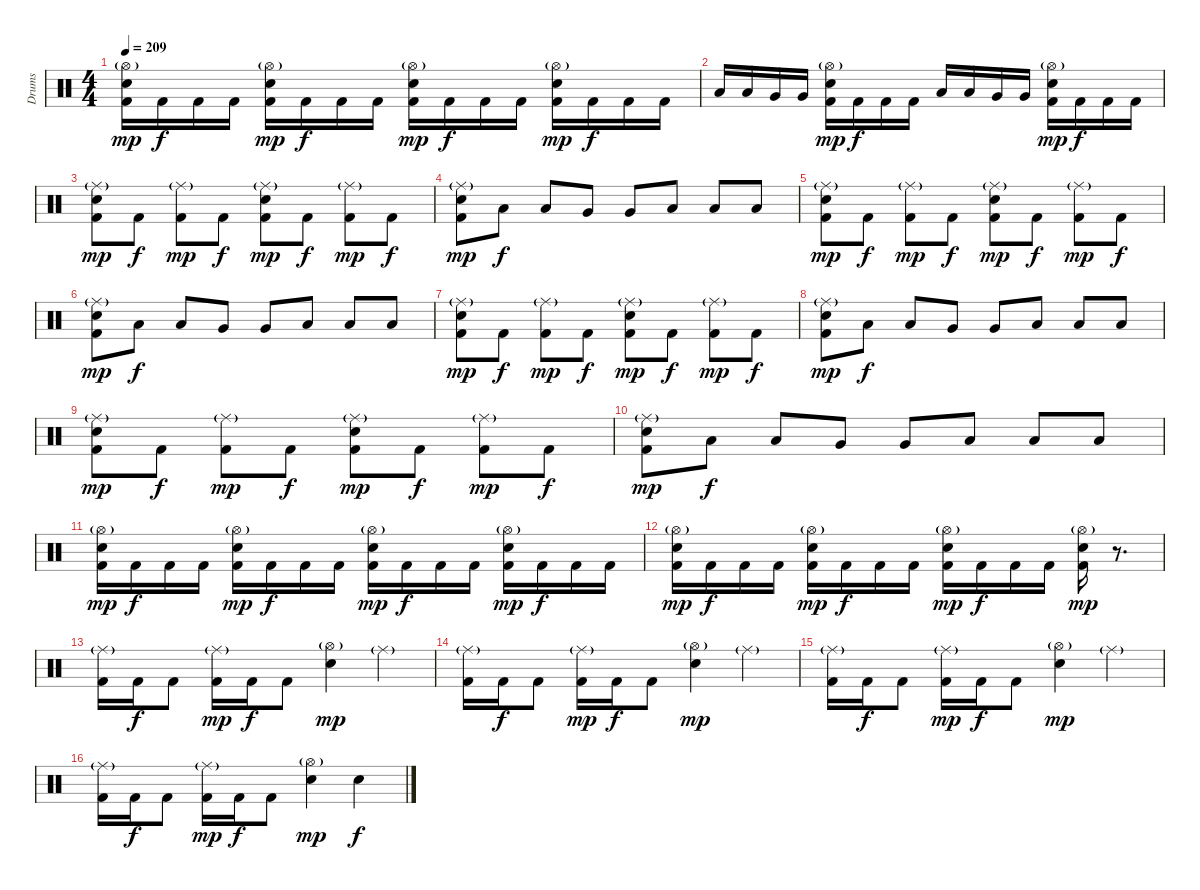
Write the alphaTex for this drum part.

\track ("Drums" "Drums") {instrument percussion}
\staff {score}
\articulation defaults
\ts (4 4)
\tempo 209
\clef neutral
\ks c
("Hi-Hat (open)"{g} "Snare (hit) 2" "Kick (hit) 2").16{dy mp} "Kick (hit) 2".16{dy f} "Kick (hit) 2".16 "Kick (hit) 2".16 ("Hi-Hat (open)"{g} "Snare (hit) 2" "Kick (hit) 2").16{dy mp} "Kick (hit) 2".16{dy f} "Kick (hit) 2".16 "Kick (hit) 2".16 ("Hi-Hat (open)"{g} "Snare (hit) 2" "Kick (hit) 2").16{dy mp} "Kick (hit) 2".16{dy f} "Kick (hit) 2".16 "Kick (hit) 2".16 ("Hi-Hat (open)"{g} "Snare (hit) 2" "Kick (hit) 2").16{dy mp} "Kick (hit) 2".16{dy f} "Kick (hit) 2".16 "Kick (hit) 2".16 |
"Low Tom (hit)".16 "Low Tom (hit)".16 "Very Low Tom (hit)".16 "Very Low Tom (hit)".16 ("Hi-Hat (open)"{g} "Snare (hit) 2" "Kick (hit) 2").16{dy mp} "Kick (hit) 2".16{dy f} "Kick (hit) 2".16 "Kick (hit) 2".16 "Low Tom (hit)".16 "Low Tom (hit)".16 "Very Low Tom (hit)".16 "Very Low Tom (hit)".16 ("Hi-Hat (open)"{g} "Snare (hit) 2" "Kick (hit) 2").16{dy mp} "Kick (hit) 2".16{dy f} "Kick (hit) 2".16 "Kick (hit) 2".16 |
("Ride (middle)"{g} "Snare (hit) 2" "Kick (hit) 2").8{dy mp} "Kick (hit) 2".8{dy f} ("Ride (middle)"{g} "Kick (hit) 2").8{dy mp} "Kick (hit) 2".8{dy f} ("Ride (middle)"{g} "Snare (hit) 2" "Kick (hit) 2").8{dy mp} "Kick (hit) 2".8{dy f} ("Ride (middle)"{g} "Kick (hit) 2").8{dy mp} "Kick (hit) 2".8{dy f} |
("Ride (middle)"{g} "Snare (hit) 2" "Kick (hit) 2").8{dy mp} "Low Tom (hit)".8{dy f} "Low Tom (hit)".8 "Very Low Tom (hit)".8 "Very Low Tom (hit)".8 "Low Floor Tom (hit)".8 "Low Floor Tom (hit)".8 "Low Floor Tom (hit)".8 |
("Ride (middle)"{g} "Snare (hit) 2" "Kick (hit) 2").8{dy mp} "Kick (hit) 2".8{dy f} ("Ride (middle)"{g} "Kick (hit) 2").8{dy mp} "Kick (hit) 2".8{dy f} ("Ride (middle)"{g} "Snare (hit) 2" "Kick (hit) 2").8{dy mp} "Kick (hit) 2".8{dy f} ("Ride (middle)"{g} "Kick (hit) 2").8{dy mp} "Kick (hit) 2".8{dy f} |
("Ride (middle)"{g} "Snare (hit) 2" "Kick (hit) 2").8{dy mp} "Low Tom (hit)".8{dy f} "Low Tom (hit)".8 "Very Low Tom (hit)".8 "Very Low Tom (hit)".8 "Low Floor Tom (hit)".8 "Low Floor Tom (hit)".8 "Low Floor Tom (hit)".8 |
("Ride (middle)"{g} "Snare (hit) 2" "Kick (hit) 2").8{dy mp} "Kick (hit) 2".8{dy f} ("Ride (middle)"{g} "Kick (hit) 2").8{dy mp} "Kick (hit) 2".8{dy f} ("Ride (middle)"{g} "Snare (hit) 2" "Kick (hit) 2").8{dy mp} "Kick (hit) 2".8{dy f} ("Ride (middle)"{g} "Kick (hit) 2").8{dy mp} "Kick (hit) 2".8{dy f} |
("Ride (middle)"{g} "Snare (hit) 2" "Kick (hit) 2").8{dy mp} "Low Tom (hit)".8{dy f} "Low Tom (hit)".8 "Very Low Tom (hit)".8 "Very Low Tom (hit)".8 "Low Floor Tom (hit)".8 "Low Floor Tom (hit)".8 "Low Floor Tom (hit)".8 |
("Ride (middle)"{g} "Snare (hit) 2" "Kick (hit) 2").8{dy mp} "Kick (hit) 2".8{dy f} ("Ride (middle)"{g} "Kick (hit) 2").8{dy mp} "Kick (hit) 2".8{dy f} ("Ride (middle)"{g} "Snare (hit) 2" "Kick (hit) 2").8{dy mp} "Kick (hit) 2".8{dy f} ("Ride (middle)"{g} "Kick (hit) 2").8{dy mp} "Kick (hit) 2".8{dy f} |
("Ride (middle)"{g} "Snare (hit) 2" "Kick (hit) 2").8{dy mp} "Low Tom (hit)".8{dy f} "Low Tom (hit)".8 "Very Low Tom (hit)".8 "Very Low Tom (hit)".8 "Low Floor Tom (hit)".8 "Low Floor Tom (hit)".8 "Low Floor Tom (hit)".8 |
("Hi-Hat (open)"{g} "Snare (hit) 2" "Kick (hit) 2").16{dy mp} "Kick (hit) 2".16{dy f} "Kick (hit) 2".16 "Kick (hit) 2".16 ("Hi-Hat (open)"{g} "Snare (hit) 2" "Kick (hit) 2").16{dy mp} "Kick (hit) 2".16{dy f} "Kick (hit) 2".16 "Kick (hit) 2".16 ("Hi-Hat (open)"{g} "Snare (hit) 2" "Kick (hit) 2").16{dy mp} "Kick (hit) 2".16{dy f} "Kick (hit) 2".16 "Kick (hit) 2".16 ("Hi-Hat (open)"{g} "Snare (hit) 2" "Kick (hit) 2").16{dy mp} "Kick (hit) 2".16{dy f} "Kick (hit) 2".16 "Kick (hit) 2".16 |
("Hi-Hat (open)"{g} "Snare (hit) 2" "Kick (hit) 2").16{dy mp} "Kick (hit) 2".16{dy f} "Kick (hit) 2".16 "Kick (hit) 2".16 ("Hi-Hat (open)"{g} "Snare (hit) 2" "Kick (hit) 2").16{dy mp} "Kick (hit) 2".16{dy f} "Kick (hit) 2".16 "Kick (hit) 2".16 ("Hi-Hat (open)"{g} "Snare (hit) 2" "Kick (hit) 2").16{dy mp} "Kick (hit) 2".16{dy f} "Kick (hit) 2".16 "Kick (hit) 2".16 ("Hi-Hat (open)"{g} "Snare (hit) 2" "Kick (hit) 2").16{dy mp} r.8{d} |
("Ride (middle)"{g} "Kick (hit) 2").16 "Kick (hit) 2".16{dy f} "Kick (hit) 2".8 ("Ride (middle)"{g} "Kick (hit) 2").16{dy mp} "Kick (hit) 2".16{dy f} "Kick (hit) 2".8 ("Hi-Hat (open)"{g} "Snare (hit) 2").4{dy mp} "Ride (middle)"{g}.4 |
("Ride (middle)"{g} "Kick (hit) 2").16 "Kick (hit) 2".16{dy f} "Kick (hit) 2".8 ("Ride (middle)"{g} "Kick (hit) 2").16{dy mp} "Kick (hit) 2".16{dy f} "Kick (hit) 2".8 ("Hi-Hat (open)"{g} "Snare (hit) 2").4{dy mp} "Ride (middle)"{g}.4 |
("Ride (middle)"{g} "Kick (hit) 2").16 "Kick (hit) 2".16{dy f} "Kick (hit) 2".8 ("Ride (middle)"{g} "Kick (hit) 2").16{dy mp} "Kick (hit) 2".16{dy f} "Kick (hit) 2".8 ("Hi-Hat (open)"{g} "Snare (hit) 2").4{dy mp} "Ride (middle)"{g}.4 |
("Ride (middle)"{g} "Kick (hit) 2").16 "Kick (hit) 2".16{dy f} "Kick (hit) 2".8 ("Ride (middle)"{g} "Kick (hit) 2").16{dy mp} "Kick (hit) 2".16{dy f} "Kick (hit) 2".8 ("Hi-Hat (open)"{g} "Snare (hit) 2").4{dy mp} "Snare (hit) 2".4{dy f}
